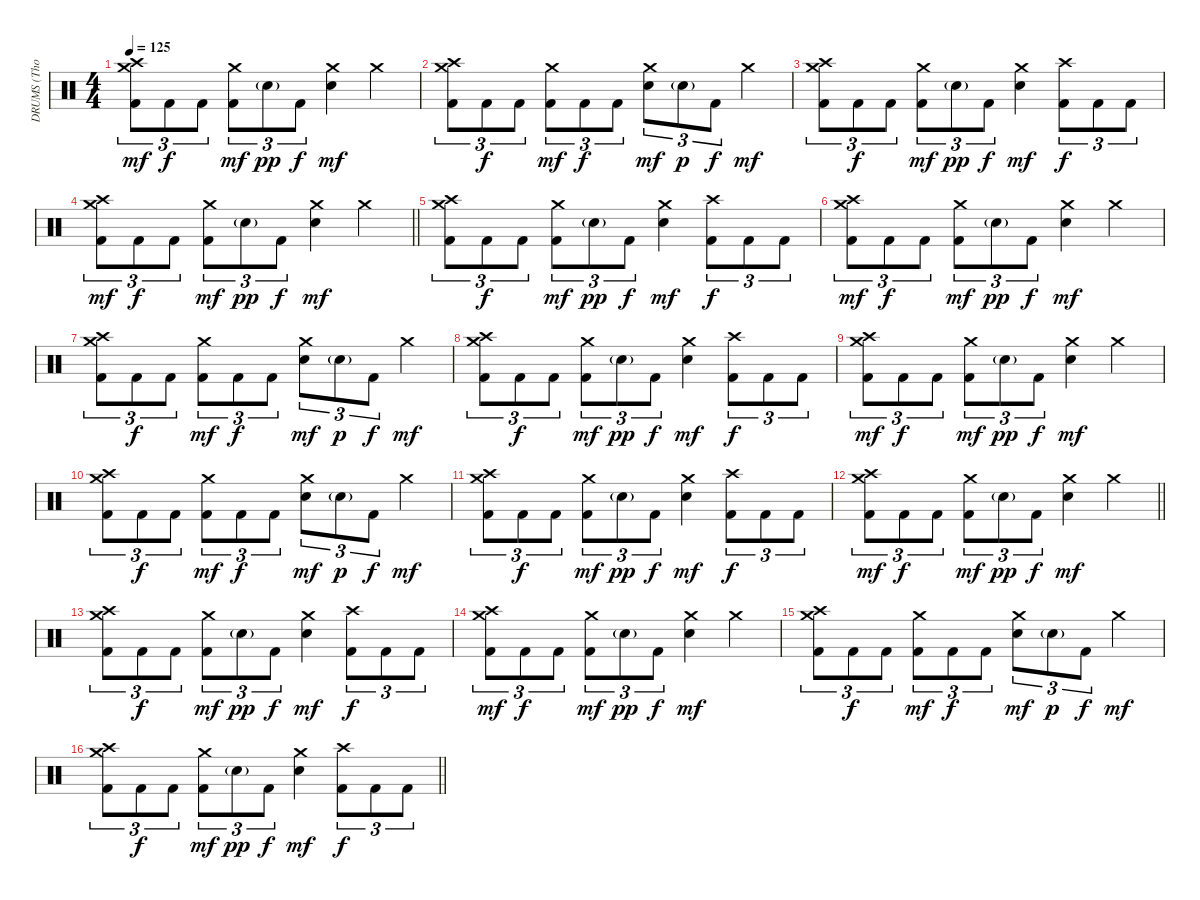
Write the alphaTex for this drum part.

\track ("DRUMS (Thomas Haake)" "DRUMS (Tho") {instrument percussion}
\staff {score}
\articulation defaults
\ts (4 4)
\tempo 125
\clef neutral
\ks c
("Crash medium (hit)" "Crash high (hit)" "Kick (hit) 2").8{tu (3 2) dy mf} "Kick (hit) 2".8{tu (3 2) dy f} "Kick (hit) 2".8{tu (3 2)} ("Crash medium (hit)" "Kick (hit) 2").8{tu (3 2) dy mf} "Electric Snare (hit)"{g}.8{tu (3 2) dy pp} "Kick (hit) 2".8{tu (3 2) dy f} ("Crash medium (hit)" "Electric Snare (hit)").4{dy mf} "Crash medium (hit)".4 |
("Crash medium (hit)" "Crash high (hit)" "Kick (hit) 2").8{tu (3 2)} "Kick (hit) 2".8{tu (3 2) dy f} "Kick (hit) 2".8{tu (3 2)} ("Crash medium (hit)" "Kick (hit) 2").8{tu (3 2) dy mf} "Kick (hit) 2".8{tu (3 2) dy f} "Kick (hit) 2".8{tu (3 2)} ("Crash medium (hit)" "Electric Snare (hit)").8{tu (3 2) dy mf} "Electric Snare (hit)"{g}.8{tu (3 2) dy p} "Kick (hit) 2".8{tu (3 2) dy f} "Crash medium (hit)".4{dy mf} |
("Crash medium (hit)" "Crash high (hit)" "Kick (hit) 2").8{tu (3 2)} "Kick (hit) 2".8{tu (3 2) dy f} "Kick (hit) 2".8{tu (3 2)} ("Crash medium (hit)" "Kick (hit) 2").8{tu (3 2) dy mf} "Electric Snare (hit)"{g}.8{tu (3 2) dy pp} "Kick (hit) 2".8{tu (3 2) dy f} ("Crash medium (hit)" "Electric Snare (hit)").4{dy mf} ("Crash high (hit)" "Kick (hit) 2").8{tu (3 2) dy f} "Kick (hit) 2".8{tu (3 2)} "Kick (hit) 2".8{tu (3 2)} |
\barLineRight lightlight
("Crash medium (hit)" "Crash high (hit)" "Kick (hit) 2").8{tu (3 2) dy mf} "Kick (hit) 2".8{tu (3 2) dy f} "Kick (hit) 2".8{tu (3 2)} ("Crash medium (hit)" "Kick (hit) 2").8{tu (3 2) dy mf} "Electric Snare (hit)"{g}.8{tu (3 2) dy pp} "Kick (hit) 2".8{tu (3 2) dy f} ("Crash medium (hit)" "Electric Snare (hit)").4{dy mf} "Crash medium (hit)".4 |
("Crash medium (hit)" "Crash high (hit)" "Kick (hit) 2").8{tu (3 2)} "Kick (hit) 2".8{tu (3 2) dy f} "Kick (hit) 2".8{tu (3 2)} ("Crash medium (hit)" "Kick (hit) 2").8{tu (3 2) dy mf} "Electric Snare (hit)"{g}.8{tu (3 2) dy pp} "Kick (hit) 2".8{tu (3 2) dy f} ("Crash medium (hit)" "Electric Snare (hit)").4{dy mf} ("Crash high (hit)" "Kick (hit) 2").8{tu (3 2) dy f} "Kick (hit) 2".8{tu (3 2)} "Kick (hit) 2".8{tu (3 2)} |
("Crash medium (hit)" "Crash high (hit)" "Kick (hit) 2").8{tu (3 2) dy mf} "Kick (hit) 2".8{tu (3 2) dy f} "Kick (hit) 2".8{tu (3 2)} ("Crash medium (hit)" "Kick (hit) 2").8{tu (3 2) dy mf} "Electric Snare (hit)"{g}.8{tu (3 2) dy pp} "Kick (hit) 2".8{tu (3 2) dy f} ("Crash medium (hit)" "Electric Snare (hit)").4{dy mf} "Crash medium (hit)".4 |
("Crash medium (hit)" "Crash high (hit)" "Kick (hit) 2").8{tu (3 2)} "Kick (hit) 2".8{tu (3 2) dy f} "Kick (hit) 2".8{tu (3 2)} ("Crash medium (hit)" "Kick (hit) 2").8{tu (3 2) dy mf} "Kick (hit) 2".8{tu (3 2) dy f} "Kick (hit) 2".8{tu (3 2)} ("Crash medium (hit)" "Electric Snare (hit)").8{tu (3 2) dy mf} "Electric Snare (hit)"{g}.8{tu (3 2) dy p} "Kick (hit) 2".8{tu (3 2) dy f} "Crash medium (hit)".4{dy mf} |
("Crash medium (hit)" "Crash high (hit)" "Kick (hit) 2").8{tu (3 2)} "Kick (hit) 2".8{tu (3 2) dy f} "Kick (hit) 2".8{tu (3 2)} ("Crash medium (hit)" "Kick (hit) 2").8{tu (3 2) dy mf} "Electric Snare (hit)"{g}.8{tu (3 2) dy pp} "Kick (hit) 2".8{tu (3 2) dy f} ("Crash medium (hit)" "Electric Snare (hit)").4{dy mf} ("Crash high (hit)" "Kick (hit) 2").8{tu (3 2) dy f} "Kick (hit) 2".8{tu (3 2)} "Kick (hit) 2".8{tu (3 2)} |
("Crash medium (hit)" "Crash high (hit)" "Kick (hit) 2").8{tu (3 2) dy mf} "Kick (hit) 2".8{tu (3 2) dy f} "Kick (hit) 2".8{tu (3 2)} ("Crash medium (hit)" "Kick (hit) 2").8{tu (3 2) dy mf} "Electric Snare (hit)"{g}.8{tu (3 2) dy pp} "Kick (hit) 2".8{tu (3 2) dy f} ("Crash medium (hit)" "Electric Snare (hit)").4{dy mf} "Crash medium (hit)".4 |
("Crash medium (hit)" "Crash high (hit)" "Kick (hit) 2").8{tu (3 2)} "Kick (hit) 2".8{tu (3 2) dy f} "Kick (hit) 2".8{tu (3 2)} ("Crash medium (hit)" "Kick (hit) 2").8{tu (3 2) dy mf} "Kick (hit) 2".8{tu (3 2) dy f} "Kick (hit) 2".8{tu (3 2)} ("Crash medium (hit)" "Electric Snare (hit)").8{tu (3 2) dy mf} "Electric Snare (hit)"{g}.8{tu (3 2) dy p} "Kick (hit) 2".8{tu (3 2) dy f} "Crash medium (hit)".4{dy mf} |
("Crash medium (hit)" "Crash high (hit)" "Kick (hit) 2").8{tu (3 2)} "Kick (hit) 2".8{tu (3 2) dy f} "Kick (hit) 2".8{tu (3 2)} ("Crash medium (hit)" "Kick (hit) 2").8{tu (3 2) dy mf} "Electric Snare (hit)"{g}.8{tu (3 2) dy pp} "Kick (hit) 2".8{tu (3 2) dy f} ("Crash medium (hit)" "Electric Snare (hit)").4{dy mf} ("Crash high (hit)" "Kick (hit) 2").8{tu (3 2) dy f} "Kick (hit) 2".8{tu (3 2)} "Kick (hit) 2".8{tu (3 2)} |
\barLineRight lightlight
("Crash medium (hit)" "Crash high (hit)" "Kick (hit) 2").8{tu (3 2) dy mf} "Kick (hit) 2".8{tu (3 2) dy f} "Kick (hit) 2".8{tu (3 2)} ("Crash medium (hit)" "Kick (hit) 2").8{tu (3 2) dy mf} "Electric Snare (hit)"{g}.8{tu (3 2) dy pp} "Kick (hit) 2".8{tu (3 2) dy f} ("Crash medium (hit)" "Electric Snare (hit)").4{dy mf} "Crash medium (hit)".4 |
("Crash medium (hit)" "Crash high (hit)" "Kick (hit) 2").8{tu (3 2)} "Kick (hit) 2".8{tu (3 2) dy f} "Kick (hit) 2".8{tu (3 2)} ("Crash medium (hit)" "Kick (hit) 2").8{tu (3 2) dy mf} "Electric Snare (hit)"{g}.8{tu (3 2) dy pp} "Kick (hit) 2".8{tu (3 2) dy f} ("Crash medium (hit)" "Electric Snare (hit)").4{dy mf} ("Crash high (hit)" "Kick (hit) 2").8{tu (3 2) dy f} "Kick (hit) 2".8{tu (3 2)} "Kick (hit) 2".8{tu (3 2)} |
("Crash medium (hit)" "Crash high (hit)" "Kick (hit) 2").8{tu (3 2) dy mf} "Kick (hit) 2".8{tu (3 2) dy f} "Kick (hit) 2".8{tu (3 2)} ("Crash medium (hit)" "Kick (hit) 2").8{tu (3 2) dy mf} "Electric Snare (hit)"{g}.8{tu (3 2) dy pp} "Kick (hit) 2".8{tu (3 2) dy f} ("Crash medium (hit)" "Electric Snare (hit)").4{dy mf} "Crash medium (hit)".4 |
("Crash medium (hit)" "Crash high (hit)" "Kick (hit) 2").8{tu (3 2)} "Kick (hit) 2".8{tu (3 2) dy f} "Kick (hit) 2".8{tu (3 2)} ("Crash medium (hit)" "Kick (hit) 2").8{tu (3 2) dy mf} "Kick (hit) 2".8{tu (3 2) dy f} "Kick (hit) 2".8{tu (3 2)} ("Crash medium (hit)" "Electric Snare (hit)").8{tu (3 2) dy mf} "Electric Snare (hit)"{g}.8{tu (3 2) dy p} "Kick (hit) 2".8{tu (3 2) dy f} "Crash medium (hit)".4{dy mf} |
\barLineRight lightlight
("Crash medium (hit)" "Crash high (hit)" "Kick (hit) 2").8{tu (3 2)} "Kick (hit) 2".8{tu (3 2) dy f} "Kick (hit) 2".8{tu (3 2)} ("Crash medium (hit)" "Kick (hit) 2").8{tu (3 2) dy mf} "Electric Snare (hit)"{g}.8{tu (3 2) dy pp} "Kick (hit) 2".8{tu (3 2) dy f} ("Crash medium (hit)" "Electric Snare (hit)").4{dy mf} ("Crash high (hit)" "Kick (hit) 2").8{tu (3 2) dy f} "Kick (hit) 2".8{tu (3 2)} "Kick (hit) 2".8{tu (3 2)}
